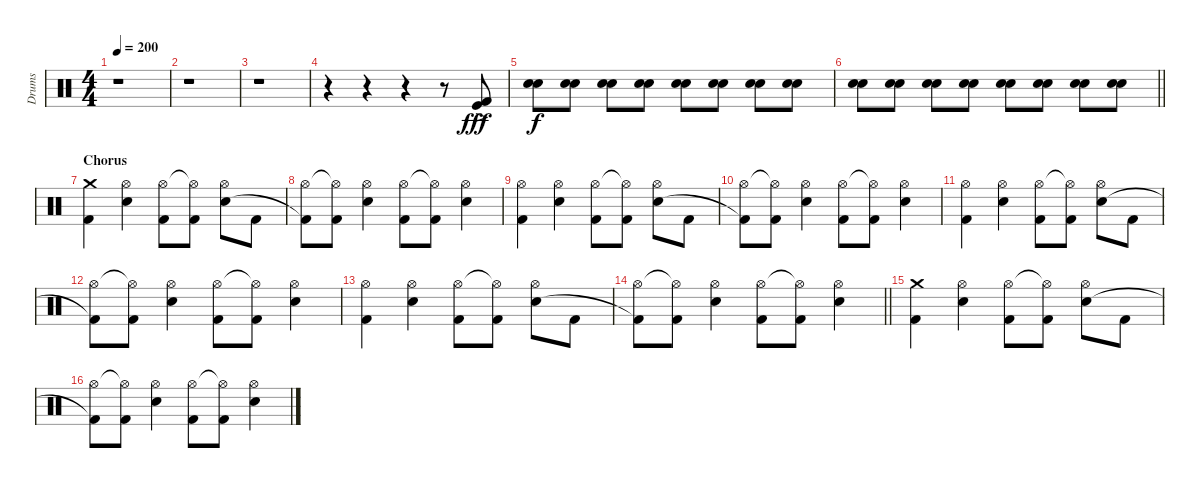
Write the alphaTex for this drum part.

\track ("Drums" "Drums") {instrument percussion}
\staff {score}
\articulation defaults
\ts (4 4)
\tempo 200
\clef neutral
\ks c
r.1{dy f} |
r.1 |
r.1 |
r.4 r.4 r.4 r.8 ("Kick (hit)" "Kick (hit) 2"{ac}).8{dy fff} |
("Electric Snare (hit)" "Electric Snare (hit)").8{dy f} ("Electric Snare (hit)" "Electric Snare (hit)").8 ("Electric Snare (hit)" "Electric Snare (hit)").8 ("Electric Snare (hit)" "Electric Snare (hit)").8 ("Electric Snare (hit)" "Electric Snare (hit)").8 ("Electric Snare (hit)" "Electric Snare (hit)").8 ("Electric Snare (hit)" "Electric Snare (hit)").8 ("Electric Snare (hit)" "Electric Snare (hit)").8 |
\barLineRight lightlight
("Electric Snare (hit)" "Electric Snare (hit)").8 ("Electric Snare (hit)" "Electric Snare (hit)").8 ("Electric Snare (hit)" "Electric Snare (hit)").8 ("Electric Snare (hit)" "Electric Snare (hit)").8 ("Electric Snare (hit)" "Electric Snare (hit)").8 ("Electric Snare (hit)" "Electric Snare (hit)").8 ("Electric Snare (hit)" "Electric Snare (hit)").8 ("Electric Snare (hit)" "Electric Snare (hit)").8 |
\section ("" "Chorus")
("Crash medium (hit)" "Kick (hit) 2").4 ("Hi-Hat (open)" "Electric Snare (hit)").4 ("Hi-Hat (open)" "Kick (hit) 2").8 ("Hi-Hat (open)"{t} "Kick (hit) 2").8 ("Hi-Hat (open)" "Electric Snare (hit)").8 "Kick (hit) 2".8 |
("Hi-Hat (open)" "Kick (hit) 2"{t}).8 ("Hi-Hat (open)"{t} "Kick (hit) 2").8 ("Hi-Hat (open)" "Electric Snare (hit)").4 ("Hi-Hat (open)" "Kick (hit) 2").8 ("Hi-Hat (open)"{t} "Kick (hit) 2").8 ("Hi-Hat (open)" "Electric Snare (hit)").4 |
("Hi-Hat (open)" "Kick (hit) 2").4 ("Hi-Hat (open)" "Electric Snare (hit)").4 ("Hi-Hat (open)" "Kick (hit) 2").8 ("Hi-Hat (open)"{t} "Kick (hit) 2").8 ("Hi-Hat (open)" "Electric Snare (hit)").8 "Kick (hit) 2".8 |
("Hi-Hat (open)" "Kick (hit) 2"{t}).8 ("Hi-Hat (open)"{t} "Kick (hit) 2").8 ("Hi-Hat (open)" "Electric Snare (hit)").4 ("Hi-Hat (open)" "Kick (hit) 2").8 ("Hi-Hat (open)"{t} "Kick (hit) 2").8 ("Hi-Hat (open)" "Electric Snare (hit)").4 |
("Hi-Hat (open)" "Kick (hit) 2").4 ("Hi-Hat (open)" "Electric Snare (hit)").4 ("Hi-Hat (open)" "Kick (hit) 2").8 ("Hi-Hat (open)"{t} "Kick (hit) 2").8 ("Hi-Hat (open)" "Electric Snare (hit)").8 "Kick (hit) 2".8 |
("Hi-Hat (open)" "Kick (hit) 2"{t}).8 ("Hi-Hat (open)"{t} "Kick (hit) 2").8 ("Hi-Hat (open)" "Electric Snare (hit)").4 ("Hi-Hat (open)" "Kick (hit) 2").8 ("Hi-Hat (open)"{t} "Kick (hit) 2").8 ("Hi-Hat (open)" "Electric Snare (hit)").4 |
("Hi-Hat (open)" "Kick (hit) 2").4 ("Hi-Hat (open)" "Electric Snare (hit)").4 ("Hi-Hat (open)" "Kick (hit) 2").8 ("Hi-Hat (open)"{t} "Kick (hit) 2").8 ("Hi-Hat (open)" "Electric Snare (hit)").8 "Kick (hit) 2".8 |
\barLineRight lightlight
("Hi-Hat (open)" "Kick (hit) 2"{t}).8 ("Hi-Hat (open)"{t} "Kick (hit) 2").8 ("Hi-Hat (open)" "Electric Snare (hit)").4 ("Hi-Hat (open)" "Kick (hit) 2").8 ("Hi-Hat (open)"{t} "Kick (hit) 2").8 ("Hi-Hat (open)" "Electric Snare (hit)").4 |
("Crash medium (hit)" "Kick (hit) 2").4 ("Hi-Hat (open)" "Electric Snare (hit)").4 ("Hi-Hat (open)" "Kick (hit) 2").8 ("Hi-Hat (open)"{t} "Kick (hit) 2").8 ("Hi-Hat (open)" "Electric Snare (hit)").8 "Kick (hit) 2".8 |
("Hi-Hat (open)" "Kick (hit) 2"{t}).8 ("Hi-Hat (open)"{t} "Kick (hit) 2").8 ("Hi-Hat (open)" "Electric Snare (hit)").4 ("Hi-Hat (open)" "Kick (hit) 2").8 ("Hi-Hat (open)"{t} "Kick (hit) 2").8 ("Hi-Hat (open)" "Electric Snare (hit)").4
